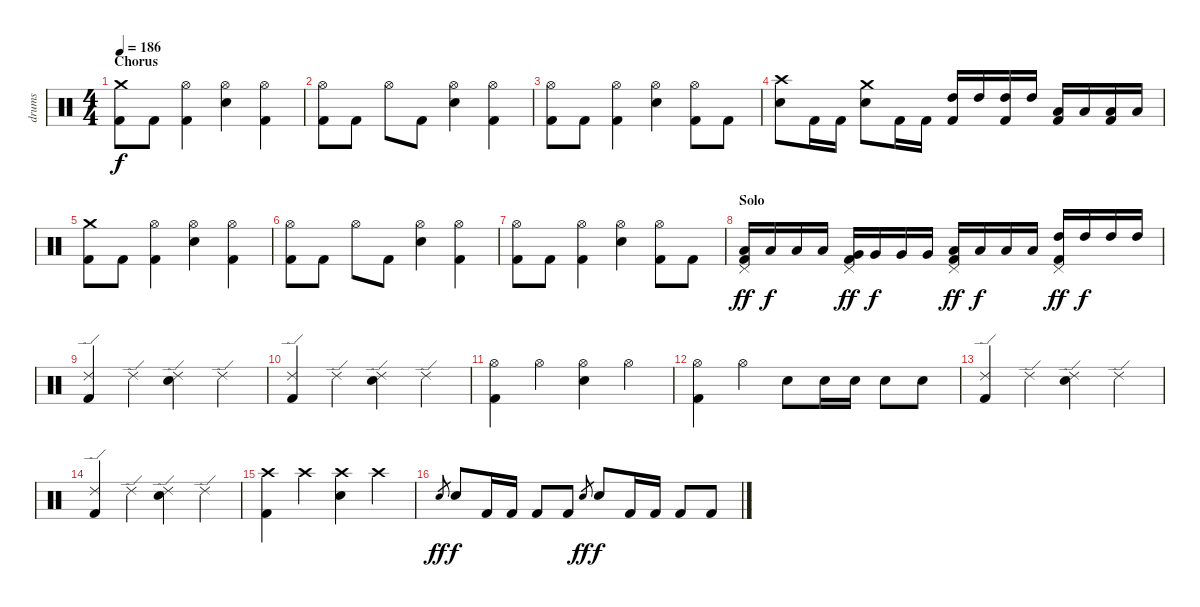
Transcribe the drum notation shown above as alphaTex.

\track ("drums" "drums") {instrument percussion}
\staff {score}
\articulation defaults
\ts (4 4)
\section ("" "Chorus")
\tempo 186
\clef neutral
\ks c
("Crash medium (hit)" "Kick (hit) 2").8{dy f} "Kick (hit) 2".8 ("Hi-Hat (open)" "Kick (hit) 2").4 ("Hi-Hat (open)" "Electric Snare (hit)").4 ("Hi-Hat (open)" "Kick (hit) 2").4 |
("Hi-Hat (open)" "Kick (hit) 2").8 "Kick (hit) 2".8 "Hi-Hat (open)".8 "Kick (hit) 2".8 ("Hi-Hat (open)" "Electric Snare (hit)").4 ("Hi-Hat (open)" "Kick (hit) 2").4 |
("Hi-Hat (open)" "Kick (hit) 2").8 "Kick (hit) 2".8 ("Hi-Hat (open)" "Kick (hit) 2").4 ("Hi-Hat (open)" "Electric Snare (hit)").4 ("Hi-Hat (open)" "Kick (hit) 2").8 "Kick (hit) 2".8 |
("Crash high (hit)" "Electric Snare (hit)").8 "Kick (hit) 2".16 "Kick (hit) 2".16 ("Crash medium (hit)" "Electric Snare (hit)").8 "Kick (hit) 2".16 "Kick (hit) 2".16 ("High Tom (hit)" "Kick (hit) 2").16 "High Tom (hit)".16 ("High Tom (hit)" "Kick (hit) 2").16 "High Tom (hit)".16 ("Low Tom (hit)" "Kick (hit) 2").16 "Low Tom (hit)".16 ("Low Tom (hit)" "Kick (hit) 2").16 "Low Tom (hit)".16 |
("Crash medium (hit)" "Kick (hit) 2").8 "Kick (hit) 2".8 ("Hi-Hat (open)" "Kick (hit) 2").4 ("Hi-Hat (open)" "Electric Snare (hit)").4 ("Hi-Hat (open)" "Kick (hit) 2").4 |
("Hi-Hat (open)" "Kick (hit) 2").8 "Kick (hit) 2".8 "Hi-Hat (open)".8 "Kick (hit) 2".8 ("Hi-Hat (open)" "Electric Snare (hit)").4 ("Hi-Hat (open)" "Kick (hit) 2").4 |
("Hi-Hat (open)" "Kick (hit) 2").8 "Kick (hit) 2".8 ("Hi-Hat (open)" "Kick (hit) 2").4 ("Hi-Hat (open)" "Electric Snare (hit)").4 ("Hi-Hat (open)" "Kick (hit) 2").8 "Kick (hit) 2".8 |
\section ("" "Solo")
("Pedal Hi-Hat (hit)" "Low Tom (hit)" "Kick (hit) 2").16{dy ff} "Low Tom (hit)".16{dy f} "Low Tom (hit)".16 "Low Tom (hit)".16 ("Pedal Hi-Hat (hit)" "Very Low Tom (hit)" "Kick (hit) 2").16{dy ff} "Very Low Tom (hit)".16{dy f} "Very Low Tom (hit)".16 "Very Low Tom (hit)".16 ("Pedal Hi-Hat (hit)" "Low Tom (hit)" "Kick (hit) 2").16{dy ff} "Low Tom (hit)".16{dy f} "Low Tom (hit)".16 "Low Tom (hit)".16 ("Pedal Hi-Hat (hit)" "High Tom (hit)" "Kick (hit) 2").16{dy ff} "High Tom (hit)".16{dy f} "High Tom (hit)".16 "High Tom (hit)".16 |
("Ride (edge) 2" "Kick (hit) 2").4 "Ride (edge) 2".4 ("Ride (edge) 2" "Electric Snare (hit)").4 "Ride (edge) 2".4 |
("Ride (edge) 2" "Kick (hit) 2").4 "Ride (edge) 2".4 ("Ride (edge) 2" "Electric Snare (hit)").4 "Ride (edge) 2".4 |
("Hi-Hat (open)" "Kick (hit) 2").4 "Hi-Hat (open)".4 ("Hi-Hat (open)" "Electric Snare (hit)").4 "Hi-Hat (open)".4 |
("Hi-Hat (open)" "Kick (hit) 2").4 "Hi-Hat (open)".4 "Electric Snare (hit)".8 "Electric Snare (hit)".16 "Electric Snare (hit)".16 "Electric Snare (hit)".8 "Electric Snare (hit)".8 |
("Ride (edge) 2" "Kick (hit) 2").4 "Ride (edge) 2".4 ("Ride (edge) 2" "Electric Snare (hit)").4 "Ride (edge) 2".4 |
("Ride (edge) 2" "Kick (hit) 2").4 "Ride (edge) 2".4 ("Ride (edge) 2" "Electric Snare (hit)").4 "Ride (edge) 2".4 |
("Crash high (hit)" "Kick (hit) 2").4 "Crash high (hit)".4 ("Crash high (hit)" "Electric Snare (hit)").4 "Crash high (hit)".4 |
"Snare (hit) 2".8{gr dy ff} "Electric Snare (hit)".8{dy f} "Kick (hit) 2".16 "Kick (hit) 2".16 "Kick (hit) 2".8 "Kick (hit) 2".8 "Snare (hit) 2".8{gr dy ff} "Electric Snare (hit)".8{dy f} "Kick (hit) 2".16 "Kick (hit) 2".16 "Kick (hit) 2".8 "Kick (hit) 2".8
